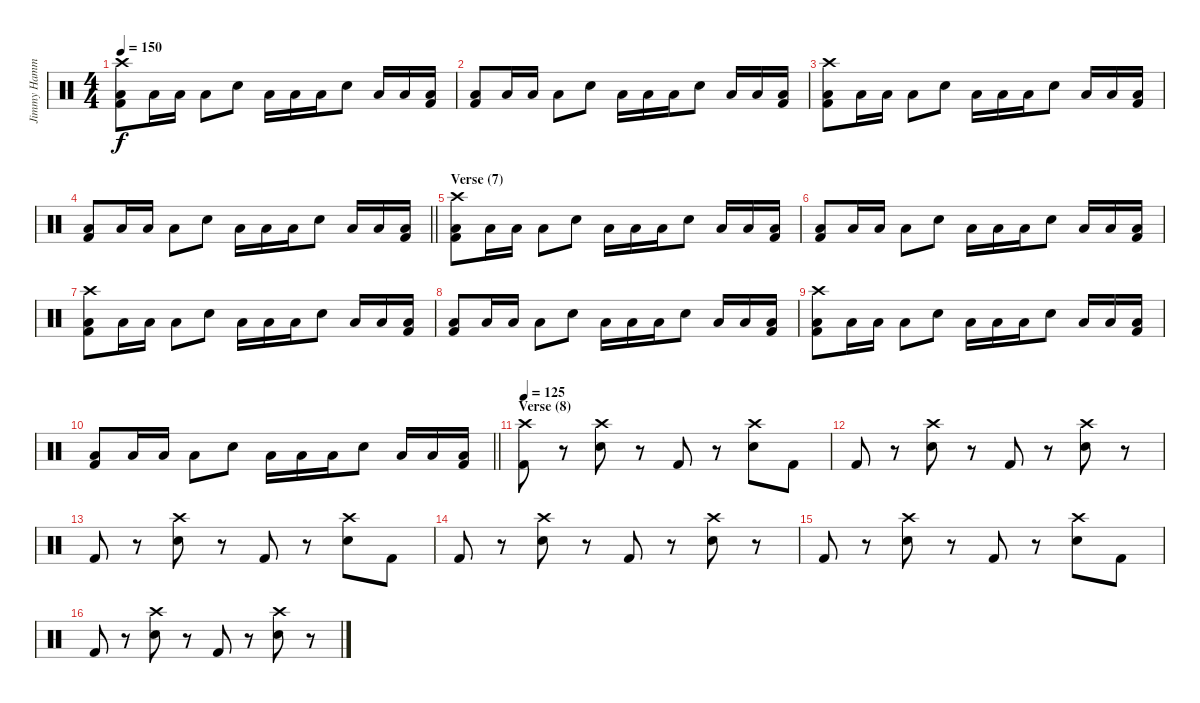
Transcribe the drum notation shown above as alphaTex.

\track ("Jimmy Hammer" "Jimmy Hamm") {instrument percussion}
\staff {score}
\articulation defaults
\ts (4 4)
\tempo 150
\clef neutral
\ks c
("Crash high (hit)" "Low Floor Tom (hit)" "Kick (hit) 2").8{dy f} "Low Floor Tom (hit)".16 "Low Floor Tom (hit)".16 "Low Floor Tom (hit)".8 "Electric Snare (hit)".8 "Low Floor Tom (hit)".16 "Low Floor Tom (hit)".16 "Low Floor Tom (hit)".16 "Electric Snare (hit)".8 "Low Floor Tom (hit)".16 "Low Floor Tom (hit)".16 ("Low Floor Tom (hit)" "Kick (hit) 2").16 |
("Low Floor Tom (hit)" "Kick (hit) 2").8 "Low Floor Tom (hit)".16 "Low Floor Tom (hit)".16 "Low Floor Tom (hit)".8 "Electric Snare (hit)".8 "Low Floor Tom (hit)".16 "Low Floor Tom (hit)".16 "Low Floor Tom (hit)".16 "Electric Snare (hit)".8 "Low Floor Tom (hit)".16 "Low Floor Tom (hit)".16 ("Low Floor Tom (hit)" "Kick (hit) 2").16 |
("Crash high (hit)" "Low Floor Tom (hit)" "Kick (hit) 2").8 "Low Floor Tom (hit)".16 "Low Floor Tom (hit)".16 "Low Floor Tom (hit)".8 "Electric Snare (hit)".8 "Low Floor Tom (hit)".16 "Low Floor Tom (hit)".16 "Low Floor Tom (hit)".16 "Electric Snare (hit)".8 "Low Floor Tom (hit)".16 "Low Floor Tom (hit)".16 ("Low Floor Tom (hit)" "Kick (hit) 2").16 |
\barLineRight lightlight
("Low Floor Tom (hit)" "Kick (hit) 2").8 "Low Floor Tom (hit)".16 "Low Floor Tom (hit)".16 "Low Floor Tom (hit)".8 "Electric Snare (hit)".8 "Low Floor Tom (hit)".16 "Low Floor Tom (hit)".16 "Low Floor Tom (hit)".16 "Electric Snare (hit)".8 "Low Floor Tom (hit)".16 "Low Floor Tom (hit)".16 ("Low Floor Tom (hit)" "Kick (hit) 2").16 |
\section ("" "Verse (7)")
("Crash high (hit)" "Low Floor Tom (hit)" "Kick (hit) 2").8 "Low Floor Tom (hit)".16 "Low Floor Tom (hit)".16 "Low Floor Tom (hit)".8 "Electric Snare (hit)".8 "Low Floor Tom (hit)".16 "Low Floor Tom (hit)".16 "Low Floor Tom (hit)".16 "Electric Snare (hit)".8 "Low Floor Tom (hit)".16 "Low Floor Tom (hit)".16 ("Low Floor Tom (hit)" "Kick (hit) 2").16 |
("Low Floor Tom (hit)" "Kick (hit) 2").8 "Low Floor Tom (hit)".16 "Low Floor Tom (hit)".16 "Low Floor Tom (hit)".8 "Electric Snare (hit)".8 "Low Floor Tom (hit)".16 "Low Floor Tom (hit)".16 "Low Floor Tom (hit)".16 "Electric Snare (hit)".8 "Low Floor Tom (hit)".16 "Low Floor Tom (hit)".16 ("Low Floor Tom (hit)" "Kick (hit) 2").16 |
("Crash high (hit)" "Low Floor Tom (hit)" "Kick (hit) 2").8 "Low Floor Tom (hit)".16 "Low Floor Tom (hit)".16 "Low Floor Tom (hit)".8 "Electric Snare (hit)".8 "Low Floor Tom (hit)".16 "Low Floor Tom (hit)".16 "Low Floor Tom (hit)".16 "Electric Snare (hit)".8 "Low Floor Tom (hit)".16 "Low Floor Tom (hit)".16 ("Low Floor Tom (hit)" "Kick (hit) 2").16 |
("Low Floor Tom (hit)" "Kick (hit) 2").8 "Low Floor Tom (hit)".16 "Low Floor Tom (hit)".16 "Low Floor Tom (hit)".8 "Electric Snare (hit)".8 "Low Floor Tom (hit)".16 "Low Floor Tom (hit)".16 "Low Floor Tom (hit)".16 "Electric Snare (hit)".8 "Low Floor Tom (hit)".16 "Low Floor Tom (hit)".16 ("Low Floor Tom (hit)" "Kick (hit) 2").16 |
("Crash high (hit)" "Low Floor Tom (hit)" "Kick (hit) 2").8 "Low Floor Tom (hit)".16 "Low Floor Tom (hit)".16 "Low Floor Tom (hit)".8 "Electric Snare (hit)".8 "Low Floor Tom (hit)".16 "Low Floor Tom (hit)".16 "Low Floor Tom (hit)".16 "Electric Snare (hit)".8 "Low Floor Tom (hit)".16 "Low Floor Tom (hit)".16 ("Low Floor Tom (hit)" "Kick (hit) 2").16 |
\barLineRight lightlight
("Low Floor Tom (hit)" "Kick (hit) 2").8 "Low Floor Tom (hit)".16 "Low Floor Tom (hit)".16 "Low Floor Tom (hit)".8 "Electric Snare (hit)".8 "Low Floor Tom (hit)".16 "Low Floor Tom (hit)".16 "Low Floor Tom (hit)".16 "Electric Snare (hit)".8 "Low Floor Tom (hit)".16 "Low Floor Tom (hit)".16 ("Low Floor Tom (hit)" "Kick (hit) 2").16 |
\section ("" "Verse (8)")
\tempo 125
("Crash high (hit)" "Kick (hit) 2").8 r.8 ("Electric Snare (hit)" "Crash high (hit)").8 r.8 "Kick (hit) 2".8 r.8 ("Electric Snare (hit)" "Crash high (hit)").8 "Kick (hit) 2".8 |
"Kick (hit) 2".8 r.8 ("Electric Snare (hit)" "Crash high (hit)").8 r.8 "Kick (hit) 2".8 r.8 ("Electric Snare (hit)" "Crash high (hit)").8 r.8 |
"Kick (hit) 2".8 r.8 ("Electric Snare (hit)" "Crash high (hit)").8 r.8 "Kick (hit) 2".8 r.8 ("Electric Snare (hit)" "Crash high (hit)").8 "Kick (hit) 2".8 |
"Kick (hit) 2".8 r.8 ("Electric Snare (hit)" "Crash high (hit)").8 r.8 "Kick (hit) 2".8 r.8 ("Electric Snare (hit)" "Crash high (hit)").8 r.8 |
"Kick (hit) 2".8 r.8 ("Electric Snare (hit)" "Crash high (hit)").8 r.8 "Kick (hit) 2".8 r.8 ("Electric Snare (hit)" "Crash high (hit)").8 "Kick (hit) 2".8 |
"Kick (hit) 2".8 r.8 ("Electric Snare (hit)" "Crash high (hit)").8 r.8 "Kick (hit) 2".8 r.8 ("Electric Snare (hit)" "Crash high (hit)").8 r.8
